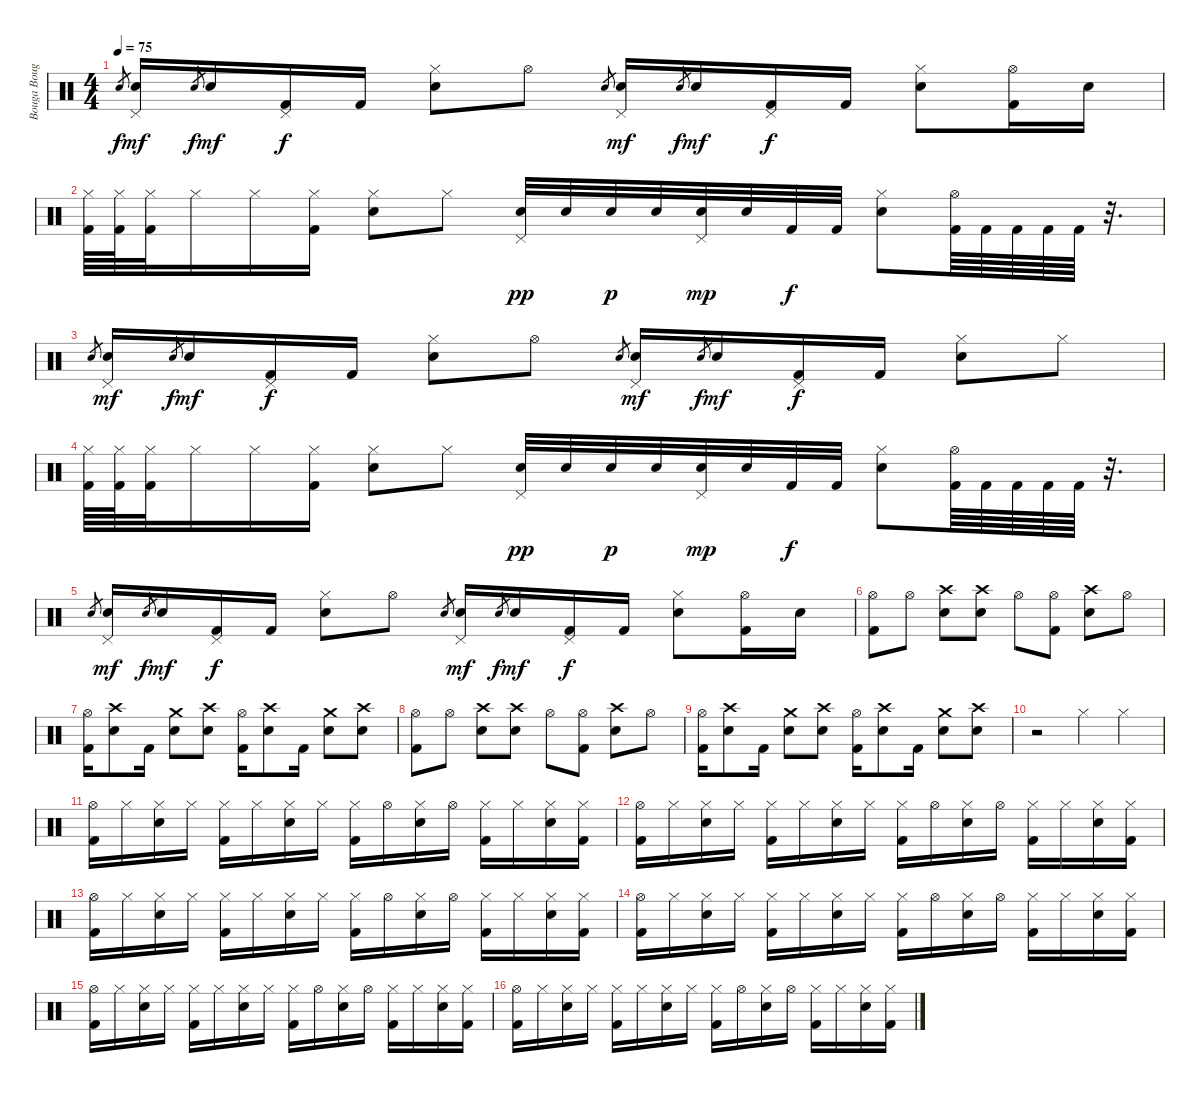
\track ("Bouga Bouga" "Bouga Boug") {instrument percussion}
\staff {score}
\articulation defaults
\ts (4 4)
\tempo 75
\clef neutral
\ks c "Snare (hit) 2".8{gr dy f}
("Pedal Hi-Hat (hit)" "Snare (hit) 2").16{dy mf} "Snare (hit) 2".8{gr dy f} "Snare (hit) 2".16{dy mf} ("Pedal Hi-Hat (hit)" "Kick (hit) 2").16{dy f} "Kick (hit) 2".16 ("Hi-Hat (closed)" "Snare (hit) 2").8 "Hi-Hat (open)".8 "Snare (hit) 2".8{gr} ("Pedal Hi-Hat (hit)" "Snare (hit) 2").16{dy mf} "Snare (hit) 2".8{gr dy f} "Snare (hit) 2".16{dy mf} ("Pedal Hi-Hat (hit)" "Kick (hit) 2").16{dy f} "Kick (hit) 2".16 ("Hi-Hat (closed)" "Snare (hit) 2").8 ("Hi-Hat (open)" "Kick (hit) 2").16 "Snare (hit) 2".16 |
("Hi-Hat (closed)" "Kick (hit) 2").64 ("Hi-Hat (closed)" "Kick (hit) 2").64 ("Hi-Hat (closed)" "Kick (hit) 2").32 "Hi-Hat (closed)".16 "Hi-Hat (closed)".16 ("Hi-Hat (closed)" "Kick (hit) 2").16 ("Hi-Hat (closed)" "Snare (hit) 2").8 "Hi-Hat (closed)".8 ("Pedal Hi-Hat (hit)" "Electric Snare (hit)").32{dy pp} "Electric Snare (hit)".32 "Electric Snare (hit)".32{dy p} "Electric Snare (hit)".32 ("Pedal Hi-Hat (hit)" "Electric Snare (hit)").32{dy mp} "Electric Snare (hit)".32 "Kick (hit) 2".32{dy f} "Kick (hit) 2".32 ("Hi-Hat (closed)" "Snare (hit) 2").8 ("Hi-Hat (open)" "Kick (hit) 2").64 "Kick (hit) 2".64 "Kick (hit) 2".64 "Kick (hit) 2".64 "Kick (hit) 2".64 r.32{d} |
"Snare (hit) 2".8{gr} ("Pedal Hi-Hat (hit)" "Snare (hit) 2").16{dy mf} "Snare (hit) 2".8{gr dy f} "Snare (hit) 2".16{dy mf} ("Pedal Hi-Hat (hit)" "Kick (hit) 2").16{dy f} "Kick (hit) 2".16 ("Hi-Hat (closed)" "Snare (hit) 2").8 "Hi-Hat (open)".8 "Snare (hit) 2".8{gr} ("Pedal Hi-Hat (hit)" "Snare (hit) 2").16{dy mf} "Snare (hit) 2".8{gr dy f} "Snare (hit) 2".16{dy mf} ("Pedal Hi-Hat (hit)" "Kick (hit) 2").16{dy f} "Kick (hit) 2".16 ("Hi-Hat (closed)" "Snare (hit) 2").8 "Hi-Hat (closed)".8 |
("Hi-Hat (closed)" "Kick (hit) 2").64 ("Hi-Hat (closed)" "Kick (hit) 2").64 ("Hi-Hat (closed)" "Kick (hit) 2").32 "Hi-Hat (closed)".16 "Hi-Hat (closed)".16 ("Hi-Hat (closed)" "Kick (hit) 2").16 ("Hi-Hat (closed)" "Snare (hit) 2").8 "Hi-Hat (closed)".8 ("Pedal Hi-Hat (hit)" "Electric Snare (hit)").32{dy pp} "Electric Snare (hit)".32 "Electric Snare (hit)".32{dy p} "Electric Snare (hit)".32 ("Pedal Hi-Hat (hit)" "Electric Snare (hit)").32{dy mp} "Electric Snare (hit)".32 "Kick (hit) 2".32{dy f} "Kick (hit) 2".32 ("Hi-Hat (closed)" "Snare (hit) 2").8 ("Hi-Hat (open)" "Kick (hit) 2").64 "Kick (hit) 2".64 "Kick (hit) 2".64 "Kick (hit) 2".64 "Kick (hit) 2".64 r.32{d} |
"Snare (hit) 2".8{gr} ("Pedal Hi-Hat (hit)" "Snare (hit) 2").16{dy mf} "Snare (hit) 2".8{gr dy f} "Snare (hit) 2".16{dy mf} ("Pedal Hi-Hat (hit)" "Kick (hit) 2").16{dy f} "Kick (hit) 2".16 ("Hi-Hat (closed)" "Snare (hit) 2").8 "Hi-Hat (open)".8 "Snare (hit) 2".8{gr} ("Pedal Hi-Hat (hit)" "Snare (hit) 2").16{dy mf} "Snare (hit) 2".8{gr dy f} "Snare (hit) 2".16{dy mf} ("Pedal Hi-Hat (hit)" "Kick (hit) 2").16{dy f} "Kick (hit) 2".16 ("Hi-Hat (closed)" "Snare (hit) 2").8 ("Hi-Hat (open)" "Kick (hit) 2").16 "Snare (hit) 2".16 |
("Hi-Hat (open)" "Kick (hit) 2").8{volume 14} "Hi-Hat (open)".8 ("Crash high (hit)" "Snare (hit) 2").8 ("Crash high (hit)" "Snare (hit) 2").8 "Hi-Hat (open)".8 ("Hi-Hat (open)" "Kick (hit) 2").8 ("Crash high (hit)" "Snare (hit) 2").8 "Hi-Hat (open)".8 |
("Hi-Hat (open)" "Kick (hit) 2").16 ("Crash high (hit)" "Snare (hit) 2").8 "Kick (hit) 2".16 ("Crash medium (hit)" "Snare (hit) 2").8 ("Crash high (hit)" "Snare (hit) 2").8 ("Hi-Hat (open)" "Kick (hit) 2").16 ("Crash high (hit)" "Snare (hit) 2").8 "Kick (hit) 2".16 ("Crash medium (hit)" "Snare (hit) 2").8 ("Crash high (hit)" "Snare (hit) 2").8 |
("Hi-Hat (open)" "Kick (hit) 2").8{volume 14} "Hi-Hat (open)".8 ("Crash high (hit)" "Snare (hit) 2").8 ("Crash high (hit)" "Snare (hit) 2").8 "Hi-Hat (open)".8 ("Hi-Hat (open)" "Kick (hit) 2").8 ("Crash high (hit)" "Snare (hit) 2").8 "Hi-Hat (open)".8 |
("Hi-Hat (open)" "Kick (hit) 2").16 ("Crash high (hit)" "Snare (hit) 2").8 "Kick (hit) 2".16 ("Crash medium (hit)" "Snare (hit) 2").8 ("Crash high (hit)" "Snare (hit) 2").8 ("Hi-Hat (open)" "Kick (hit) 2").16 ("Crash high (hit)" "Snare (hit) 2").8 "Kick (hit) 2".16 ("Crash medium (hit)" "Snare (hit) 2").8 ("Crash high (hit)" "Snare (hit) 2").8 |
r.2 "Hi-Hat (closed)".4 "Hi-Hat (closed)".4 |
("Hi-Hat (open)" "Kick (hit) 2").16 "Hi-Hat (closed)".16 ("Hi-Hat (closed)" "Snare (hit) 2").16 "Hi-Hat (closed)".16 ("Hi-Hat (closed)" "Kick (hit) 2").16 "Hi-Hat (closed)".16 ("Hi-Hat (closed)" "Snare (hit) 2").16 "Hi-Hat (closed)".16 ("Hi-Hat (closed)" "Kick (hit) 2").16 "Hi-Hat (open)".16 ("Hi-Hat (closed)" "Snare (hit) 2").16 "Hi-Hat (open)".16 ("Hi-Hat (closed)" "Kick (hit) 2").16 "Hi-Hat (closed)".16 ("Hi-Hat (closed)" "Snare (hit) 2").16 ("Hi-Hat (closed)" "Kick (hit) 2").16 |
("Hi-Hat (open)" "Kick (hit) 2").16 "Hi-Hat (closed)".16 ("Hi-Hat (closed)" "Snare (hit) 2").16 "Hi-Hat (closed)".16 ("Hi-Hat (closed)" "Kick (hit) 2").16 "Hi-Hat (closed)".16 ("Hi-Hat (closed)" "Snare (hit) 2").16 "Hi-Hat (closed)".16 ("Hi-Hat (closed)" "Kick (hit) 2").16 "Hi-Hat (open)".16 ("Hi-Hat (closed)" "Snare (hit) 2").16 "Hi-Hat (open)".16 ("Hi-Hat (closed)" "Kick (hit) 2").16 "Hi-Hat (closed)".16 ("Hi-Hat (closed)" "Snare (hit) 2").16 ("Hi-Hat (closed)" "Kick (hit) 2").16 |
("Hi-Hat (open)" "Kick (hit) 2").16 "Hi-Hat (closed)".16 ("Hi-Hat (closed)" "Snare (hit) 2").16 "Hi-Hat (closed)".16 ("Hi-Hat (closed)" "Kick (hit) 2").16 "Hi-Hat (closed)".16 ("Hi-Hat (closed)" "Snare (hit) 2").16 "Hi-Hat (closed)".16 ("Hi-Hat (closed)" "Kick (hit) 2").16 "Hi-Hat (open)".16 ("Hi-Hat (closed)" "Snare (hit) 2").16 "Hi-Hat (open)".16 ("Hi-Hat (closed)" "Kick (hit) 2").16 "Hi-Hat (closed)".16 ("Hi-Hat (closed)" "Snare (hit) 2").16 ("Hi-Hat (closed)" "Kick (hit) 2").16 |
("Hi-Hat (open)" "Kick (hit) 2").16 "Hi-Hat (closed)".16 ("Hi-Hat (closed)" "Snare (hit) 2").16 "Hi-Hat (closed)".16 ("Hi-Hat (closed)" "Kick (hit) 2").16 "Hi-Hat (closed)".16 ("Hi-Hat (closed)" "Snare (hit) 2").16 "Hi-Hat (closed)".16 ("Hi-Hat (closed)" "Kick (hit) 2").16 "Hi-Hat (open)".16 ("Hi-Hat (closed)" "Snare (hit) 2").16 "Hi-Hat (open)".16 ("Hi-Hat (closed)" "Kick (hit) 2").16 "Hi-Hat (closed)".16 ("Hi-Hat (closed)" "Snare (hit) 2").16 ("Hi-Hat (closed)" "Kick (hit) 2").16 |
("Hi-Hat (open)" "Kick (hit) 2").16 "Hi-Hat (closed)".16 ("Hi-Hat (closed)" "Snare (hit) 2").16 "Hi-Hat (closed)".16 ("Hi-Hat (closed)" "Kick (hit) 2").16 "Hi-Hat (closed)".16 ("Hi-Hat (closed)" "Snare (hit) 2").16 "Hi-Hat (closed)".16 ("Hi-Hat (closed)" "Kick (hit) 2").16 "Hi-Hat (open)".16 ("Hi-Hat (closed)" "Snare (hit) 2").16 "Hi-Hat (open)".16 ("Hi-Hat (closed)" "Kick (hit) 2").16 "Hi-Hat (closed)".16 ("Hi-Hat (closed)" "Snare (hit) 2").16 ("Hi-Hat (closed)" "Kick (hit) 2").16 |
("Hi-Hat (open)" "Kick (hit) 2").16 "Hi-Hat (closed)".16 ("Hi-Hat (closed)" "Snare (hit) 2").16 "Hi-Hat (closed)".16 ("Hi-Hat (closed)" "Kick (hit) 2").16 "Hi-Hat (closed)".16 ("Hi-Hat (closed)" "Snare (hit) 2").16 "Hi-Hat (closed)".16 ("Hi-Hat (closed)" "Kick (hit) 2").16 "Hi-Hat (open)".16 ("Hi-Hat (closed)" "Snare (hit) 2").16 "Hi-Hat (open)".16 ("Hi-Hat (closed)" "Kick (hit) 2").16 "Hi-Hat (closed)".16 ("Hi-Hat (closed)" "Snare (hit) 2").16 ("Hi-Hat (closed)" "Kick (hit) 2").16
